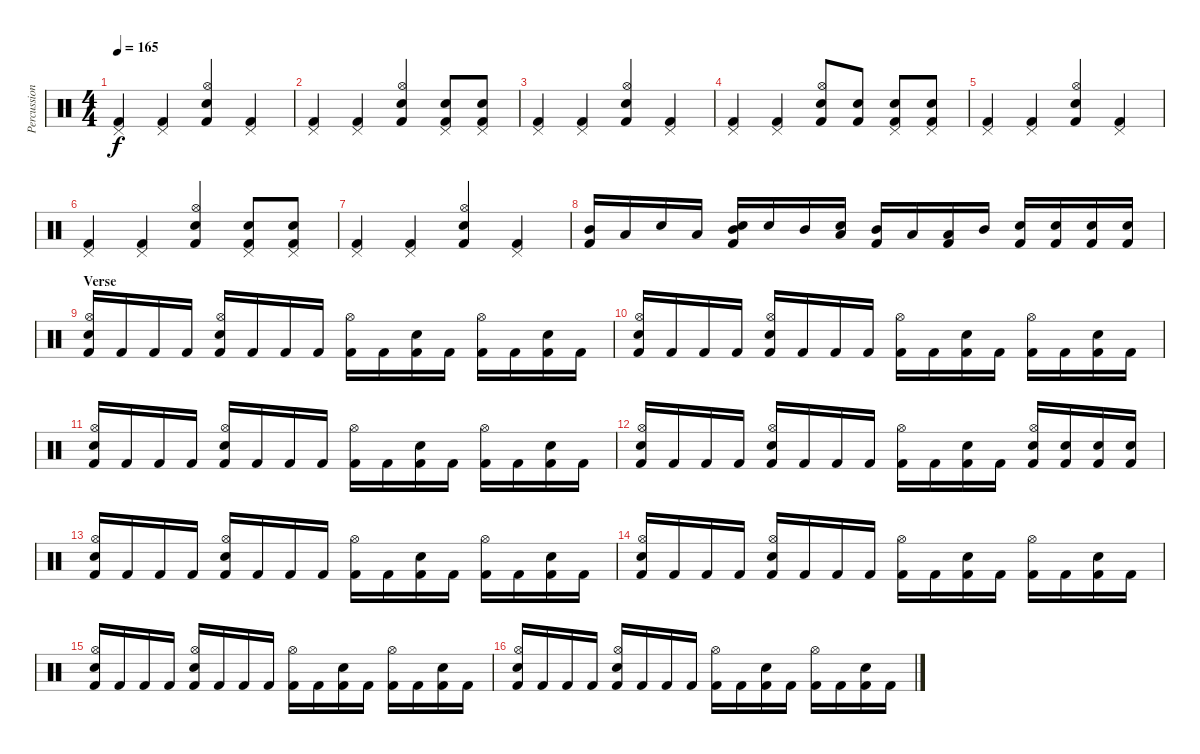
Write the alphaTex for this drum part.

\track ("Percussion" "Percussion") {instrument percussion}
\staff {score}
\articulation defaults
\ts (4 4)
\tempo 165
\clef neutral
\ks c
("Pedal Hi-Hat (hit)" "Kick (hit) 2").4{dy f} ("Pedal Hi-Hat (hit)" "Kick (hit) 2").4 ("Hi-Hat (open)" "Snare (hit) 2" "Kick (hit) 2").4 ("Pedal Hi-Hat (hit)" "Kick (hit) 2").4 |
("Pedal Hi-Hat (hit)" "Kick (hit) 2").4 ("Pedal Hi-Hat (hit)" "Kick (hit) 2").4 ("Hi-Hat (open)" "Snare (hit) 2" "Kick (hit) 2").4 ("Pedal Hi-Hat (hit)" "Snare (hit) 2" "Kick (hit) 2").8 ("Pedal Hi-Hat (hit)" "Snare (hit) 2" "Kick (hit) 2").8 |
("Pedal Hi-Hat (hit)" "Kick (hit) 2").4 ("Pedal Hi-Hat (hit)" "Kick (hit) 2").4 ("Hi-Hat (open)" "Snare (hit) 2" "Kick (hit) 2").4 ("Pedal Hi-Hat (hit)" "Kick (hit) 2").4 |
("Pedal Hi-Hat (hit)" "Kick (hit) 2").4 ("Pedal Hi-Hat (hit)" "Kick (hit) 2").4 ("Hi-Hat (open)" "Snare (hit) 2" "Kick (hit) 2").8 ("Snare (hit) 2" "Kick (hit) 2").8 ("Pedal Hi-Hat (hit)" "Snare (hit) 2" "Kick (hit) 2").8 ("Pedal Hi-Hat (hit)" "Snare (hit) 2" "Kick (hit) 2").8 |
("Pedal Hi-Hat (hit)" "Kick (hit) 2").4 ("Pedal Hi-Hat (hit)" "Kick (hit) 2").4 ("Hi-Hat (open)" "Snare (hit) 2" "Kick (hit) 2").4 ("Pedal Hi-Hat (hit)" "Kick (hit) 2").4 |
("Pedal Hi-Hat (hit)" "Kick (hit) 2").4 ("Pedal Hi-Hat (hit)" "Kick (hit) 2").4 ("Hi-Hat (open)" "Snare (hit) 2" "Kick (hit) 2").4 ("Pedal Hi-Hat (hit)" "Snare (hit) 2" "Kick (hit) 2").8 ("Pedal Hi-Hat (hit)" "Snare (hit) 2" "Kick (hit) 2").8 |
("Pedal Hi-Hat (hit)" "Kick (hit) 2").4 ("Pedal Hi-Hat (hit)" "Kick (hit) 2").4 ("Hi-Hat (open)" "Snare (hit) 2" "Kick (hit) 2").4 ("Pedal Hi-Hat (hit)" "Kick (hit) 2").4 |
("Mid Tom (hit)" "Kick (hit) 2").16 "Low Tom (hit)".16 "Snare (hit) 2".16 "Low Tom (hit)".16 ("Mid Tom (hit)" "Snare (hit) 2" "Kick (hit) 2").16 "Snare (hit) 2".16 "Mid Tom (hit)".16 ("Low Tom (hit)" "Snare (hit) 2").16 ("Mid Tom (hit)" "Kick (hit) 2").16 "Low Tom (hit)".16 ("Low Tom (hit)" "Kick (hit) 2").16 "Mid Tom (hit)".16 ("Snare (hit) 2" "Kick (hit) 2").16 ("Snare (hit) 2" "Kick (hit) 2").16 ("Snare (hit) 2" "Kick (hit) 2").16 ("Snare (hit) 2" "Kick (hit) 2").16 |
\section ("" "Verse")
("Hi-Hat (open)" "Snare (hit) 2" "Kick (hit) 2").16 "Kick (hit) 2".16 "Kick (hit) 2".16 "Kick (hit) 2".16 ("Hi-Hat (open)" "Snare (hit) 2" "Kick (hit) 2").16 "Kick (hit) 2".16 "Kick (hit) 2".16 "Kick (hit) 2".16 ("Hi-Hat (open)" "Kick (hit) 2").16 "Kick (hit) 2".16 ("Snare (hit) 2" "Kick (hit) 2").16 "Kick (hit) 2".16 ("Hi-Hat (open)" "Kick (hit) 2").16 "Kick (hit) 2".16 ("Snare (hit) 2" "Kick (hit) 2").16 "Kick (hit) 2".16 |
("Hi-Hat (open)" "Snare (hit) 2" "Kick (hit) 2").16 "Kick (hit) 2".16 "Kick (hit) 2".16 "Kick (hit) 2".16 ("Hi-Hat (open)" "Snare (hit) 2" "Kick (hit) 2").16 "Kick (hit) 2".16 "Kick (hit) 2".16 "Kick (hit) 2".16 ("Hi-Hat (open)" "Kick (hit) 2").16 "Kick (hit) 2".16 ("Snare (hit) 2" "Kick (hit) 2").16 "Kick (hit) 2".16 ("Hi-Hat (open)" "Kick (hit) 2").16 "Kick (hit) 2".16 ("Snare (hit) 2" "Kick (hit) 2").16 "Kick (hit) 2".16 |
("Hi-Hat (open)" "Snare (hit) 2" "Kick (hit) 2").16 "Kick (hit) 2".16 "Kick (hit) 2".16 "Kick (hit) 2".16 ("Hi-Hat (open)" "Snare (hit) 2" "Kick (hit) 2").16 "Kick (hit) 2".16 "Kick (hit) 2".16 "Kick (hit) 2".16 ("Hi-Hat (open)" "Kick (hit) 2").16 "Kick (hit) 2".16 ("Snare (hit) 2" "Kick (hit) 2").16 "Kick (hit) 2".16 ("Hi-Hat (open)" "Kick (hit) 2").16 "Kick (hit) 2".16 ("Snare (hit) 2" "Kick (hit) 2").16 "Kick (hit) 2".16 |
("Hi-Hat (open)" "Snare (hit) 2" "Kick (hit) 2").16 "Kick (hit) 2".16 "Kick (hit) 2".16 "Kick (hit) 2".16 ("Hi-Hat (open)" "Snare (hit) 2" "Kick (hit) 2").16 "Kick (hit) 2".16 "Kick (hit) 2".16 "Kick (hit) 2".16 ("Hi-Hat (open)" "Kick (hit) 2").16 "Kick (hit) 2".16 ("Snare (hit) 2" "Kick (hit) 2").16 "Kick (hit) 2".16 ("Hi-Hat (open)" "Snare (hit) 2" "Kick (hit) 2").16 ("Snare (hit) 2" "Kick (hit) 2").16 ("Snare (hit) 2" "Kick (hit) 2").16 ("Snare (hit) 2" "Kick (hit) 2").16 |
("Hi-Hat (open)" "Snare (hit) 2" "Kick (hit) 2").16 "Kick (hit) 2".16 "Kick (hit) 2".16 "Kick (hit) 2".16 ("Hi-Hat (open)" "Snare (hit) 2" "Kick (hit) 2").16 "Kick (hit) 2".16 "Kick (hit) 2".16 "Kick (hit) 2".16 ("Hi-Hat (open)" "Kick (hit) 2").16 "Kick (hit) 2".16 ("Snare (hit) 2" "Kick (hit) 2").16 "Kick (hit) 2".16 ("Hi-Hat (open)" "Kick (hit) 2").16 "Kick (hit) 2".16 ("Snare (hit) 2" "Kick (hit) 2").16 "Kick (hit) 2".16 |
("Hi-Hat (open)" "Snare (hit) 2" "Kick (hit) 2").16 "Kick (hit) 2".16 "Kick (hit) 2".16 "Kick (hit) 2".16 ("Hi-Hat (open)" "Snare (hit) 2" "Kick (hit) 2").16 "Kick (hit) 2".16 "Kick (hit) 2".16 "Kick (hit) 2".16 ("Hi-Hat (open)" "Kick (hit) 2").16 "Kick (hit) 2".16 ("Snare (hit) 2" "Kick (hit) 2").16 "Kick (hit) 2".16 ("Hi-Hat (open)" "Kick (hit) 2").16 "Kick (hit) 2".16 ("Snare (hit) 2" "Kick (hit) 2").16 "Kick (hit) 2".16 |
("Hi-Hat (open)" "Snare (hit) 2" "Kick (hit) 2").16 "Kick (hit) 2".16 "Kick (hit) 2".16 "Kick (hit) 2".16 ("Hi-Hat (open)" "Snare (hit) 2" "Kick (hit) 2").16 "Kick (hit) 2".16 "Kick (hit) 2".16 "Kick (hit) 2".16 ("Hi-Hat (open)" "Kick (hit) 2").16 "Kick (hit) 2".16 ("Snare (hit) 2" "Kick (hit) 2").16 "Kick (hit) 2".16 ("Hi-Hat (open)" "Kick (hit) 2").16 "Kick (hit) 2".16 ("Snare (hit) 2" "Kick (hit) 2").16 "Kick (hit) 2".16 |
("Hi-Hat (open)" "Snare (hit) 2" "Kick (hit) 2").16 "Kick (hit) 2".16 "Kick (hit) 2".16 "Kick (hit) 2".16 ("Hi-Hat (open)" "Snare (hit) 2" "Kick (hit) 2").16 "Kick (hit) 2".16 "Kick (hit) 2".16 "Kick (hit) 2".16 ("Hi-Hat (open)" "Kick (hit) 2").16 "Kick (hit) 2".16 ("Snare (hit) 2" "Kick (hit) 2").16 "Kick (hit) 2".16 ("Hi-Hat (open)" "Kick (hit) 2").16 "Kick (hit) 2".16 ("Snare (hit) 2" "Kick (hit) 2").16 "Kick (hit) 2".16
